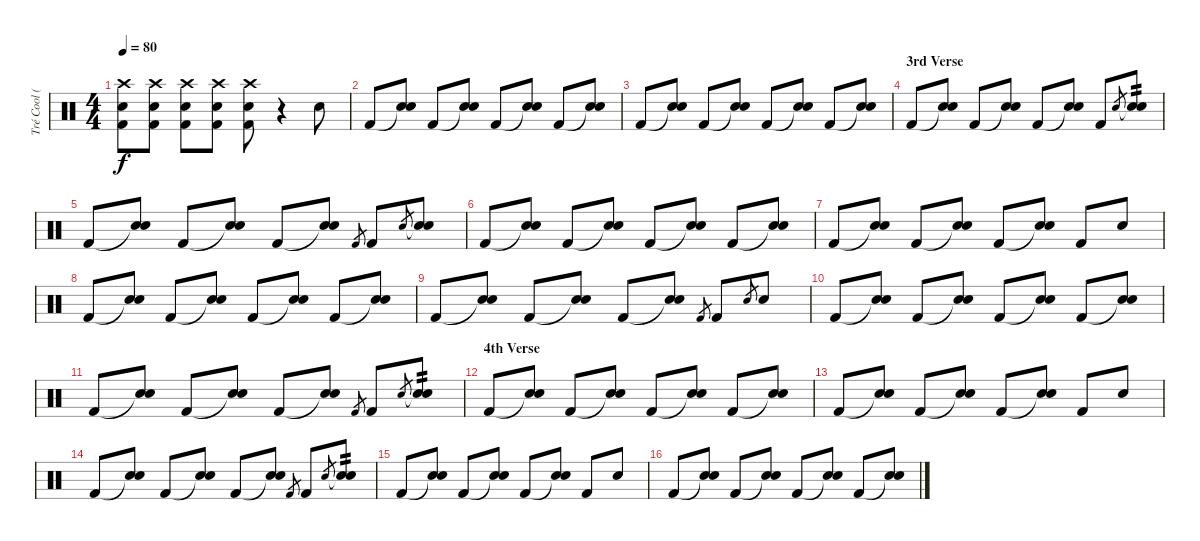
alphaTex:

\track ("Tré Cool (Drums)" "Tré Cool (") {instrument percussion}
\staff {score}
\articulation defaults
\ts (4 4)
\tempo 80
\clef neutral
\ks c
("Electric Snare (hit)" "Kick (hit) 2" "Crash high (hit)").8{dy f} ("Electric Snare (hit)" "Kick (hit) 2" "Crash high (hit)").8 ("Electric Snare (hit)" "Kick (hit) 2" "Crash high (hit)").8 ("Electric Snare (hit)" "Kick (hit) 2" "Crash high (hit)").8 ("Electric Snare (hit)" "Kick (hit) 2" "Crash high (hit)").8 r.4 "Electric Snare (hit)"{tr (38 64)}.8 |
"Kick (hit) 2".8 ("Snare (hit)"{t} "Electric Snare (hit)").8 "Kick (hit) 2".8 ("Snare (hit)"{t} "Electric Snare (hit)").8 "Kick (hit) 2".8 ("Snare (hit)"{t} "Electric Snare (hit)").8 "Kick (hit) 2".8 ("Snare (hit)"{t} "Electric Snare (hit)").8 |
"Kick (hit) 2".8 ("Snare (hit)"{t} "Electric Snare (hit)").8 "Kick (hit) 2".8 ("Snare (hit)"{t} "Electric Snare (hit)").8 "Kick (hit) 2".8 ("Snare (hit)"{t} "Electric Snare (hit)").8 "Kick (hit) 2".8 ("Snare (hit)"{t} "Electric Snare (hit)"{tr (38 64)}).8 |
\section ("" "3rd Verse")
"Kick (hit) 2".8 ("Snare (hit)"{t} "Electric Snare (hit)").8 "Kick (hit) 2".8 ("Snare (hit)"{t} "Electric Snare (hit)").8 "Kick (hit) 2".8 ("Snare (hit)"{t} "Electric Snare (hit)").8 "Kick (hit) 2".8 "Snare (hit) 2".8{gr} ("Snare (hit)"{t} "Electric Snare (hit)").8{tp 2} |
"Kick (hit) 2".8 ("Snare (hit)"{t} "Electric Snare (hit)").8 "Kick (hit) 2".8 ("Snare (hit)"{t} "Electric Snare (hit)").8 "Kick (hit) 2".8 ("Snare (hit)"{t} "Electric Snare (hit)").8 "Kick (hit) 2".8{gr} "Kick (hit) 2".8 "Electric Snare (hit)".8{gr} ("Snare (hit)"{t} "Electric Snare (hit)").8 |
"Kick (hit) 2".8 ("Snare (hit)"{t} "Electric Snare (hit)").8 "Kick (hit) 2".8 ("Snare (hit)"{t} "Electric Snare (hit)").8 "Kick (hit) 2".8 ("Snare (hit)"{t} "Electric Snare (hit)").8 "Kick (hit) 2".8 ("Snare (hit)"{t} "Electric Snare (hit)").8 |
"Kick (hit) 2".8 ("Snare (hit)"{t} "Electric Snare (hit)").8 "Kick (hit) 2".8 ("Snare (hit)"{t} "Electric Snare (hit)").8 "Kick (hit) 2".8 ("Snare (hit)"{t} "Electric Snare (hit)").8 "Kick (hit) 2".8 "Electric Snare (hit)"{tr (38 64)}.8 |
"Kick (hit) 2".8 ("Snare (hit)"{t} "Electric Snare (hit)").8 "Kick (hit) 2".8 ("Snare (hit)"{t} "Electric Snare (hit)").8 "Kick (hit) 2".8 ("Snare (hit)"{t} "Electric Snare (hit)").8 "Kick (hit) 2".8 ("Snare (hit)"{t} "Electric Snare (hit)").8 |
"Kick (hit) 2".8 ("Snare (hit)"{t} "Electric Snare (hit)").8 "Kick (hit) 2".8 ("Snare (hit)"{t} "Electric Snare (hit)").8 "Kick (hit) 2".8 ("Snare (hit)"{t} "Electric Snare (hit)").8 "Kick (hit) 2".8{gr} "Kick (hit) 2".8 "Electric Snare (hit)".8{gr} "Electric Snare (hit)".8 |
"Kick (hit) 2".8 ("Snare (hit)"{t} "Electric Snare (hit)").8 "Kick (hit) 2".8 ("Snare (hit)"{t} "Electric Snare (hit)").8 "Kick (hit) 2".8 ("Snare (hit)"{t} "Electric Snare (hit)").8 "Kick (hit) 2".8 ("Snare (hit)"{t} "Electric Snare (hit)").8 |
"Kick (hit) 2".8 ("Snare (hit)"{t} "Electric Snare (hit)").8 "Kick (hit) 2".8 ("Snare (hit)"{t} "Electric Snare (hit)").8 "Kick (hit) 2".8 ("Snare (hit)"{t} "Electric Snare (hit)").8 "Kick (hit) 2".8{gr} "Kick (hit) 2".8 "Electric Snare (hit)".8{gr} ("Snare (hit)"{t} "Electric Snare (hit)").8{tp 2} |
\section ("" "4th Verse")
"Kick (hit) 2".8 ("Snare (hit)"{t} "Electric Snare (hit)").8 "Kick (hit) 2".8 ("Snare (hit)"{t} "Electric Snare (hit)").8 "Kick (hit) 2".8 ("Snare (hit)"{t} "Electric Snare (hit)").8 "Kick (hit) 2".8 ("Snare (hit)"{t} "Electric Snare (hit)").8 |
"Kick (hit) 2".8 ("Snare (hit)"{t} "Electric Snare (hit)").8 "Kick (hit) 2".8 ("Snare (hit)"{t} "Electric Snare (hit)").8 "Kick (hit) 2".8 ("Snare (hit)"{t} "Electric Snare (hit)").8 "Kick (hit) 2".8 "Electric Snare (hit)"{tr (38 64)}.8 |
"Kick (hit) 2".8 ("Snare (hit)"{t} "Electric Snare (hit)").8 "Kick (hit) 2".8 ("Snare (hit)"{t} "Electric Snare (hit)").8 "Kick (hit) 2".8 ("Snare (hit)"{t} "Electric Snare (hit)").8 "Kick (hit) 2".8{gr} "Kick (hit) 2".8 "Electric Snare (hit)".8{gr} ("Snare (hit)"{t} "Electric Snare (hit)").8{tp 2} |
"Kick (hit) 2".8 ("Snare (hit)"{t} "Electric Snare (hit)").8 "Kick (hit) 2".8 ("Snare (hit)"{t} "Electric Snare (hit)").8 "Kick (hit) 2".8 ("Snare (hit)"{t} "Electric Snare (hit)").8 "Kick (hit) 2".8 "Electric Snare (hit)"{tr (38 64)}.8 |
"Kick (hit) 2".8 ("Snare (hit)"{t} "Electric Snare (hit)").8 "Kick (hit) 2".8 ("Snare (hit)"{t} "Electric Snare (hit)").8 "Kick (hit) 2".8 ("Snare (hit)"{t} "Electric Snare (hit)").8 "Kick (hit) 2".8 ("Snare (hit)"{t} "Electric Snare (hit)").8
